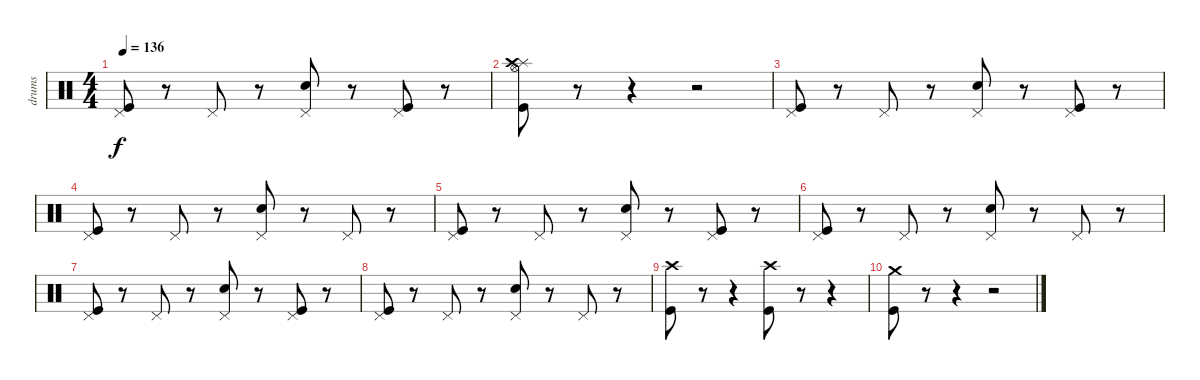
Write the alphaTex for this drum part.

\track ("drums" "drums") {instrument percussion}
\staff {score}
\articulation defaults
\ts (4 4)
\tempo 136
\clef neutral
\ks c
("Kick (hit)" "Pedal Hi-Hat (hit)").8{dy f} r.8 "Pedal Hi-Hat (hit)".8 r.8 ("Snare (hit) 2" "Pedal Hi-Hat (hit)").8 r.8 ("Kick (hit)" "Pedal Hi-Hat (hit)").8 r.8 |
("Kick (hit)" "Splash (hit)" "Hi-Hat (open)" "Crash high (hit)").8 r.8 r.4 r.2 |
("Kick (hit)" "Pedal Hi-Hat (hit)").8 r.8 "Pedal Hi-Hat (hit)".8 r.8 ("Snare (hit) 2" "Pedal Hi-Hat (hit)").8 r.8 ("Kick (hit)" "Pedal Hi-Hat (hit)").8 r.8 |
("Kick (hit)" "Pedal Hi-Hat (hit)").8 r.8 "Pedal Hi-Hat (hit)".8 r.8 ("Snare (hit) 2" "Pedal Hi-Hat (hit)").8 r.8 "Pedal Hi-Hat (hit)".8 r.8 |
("Kick (hit)" "Pedal Hi-Hat (hit)").8 r.8 "Pedal Hi-Hat (hit)".8 r.8 ("Snare (hit) 2" "Pedal Hi-Hat (hit)").8 r.8 ("Kick (hit)" "Pedal Hi-Hat (hit)").8 r.8 |
("Kick (hit)" "Pedal Hi-Hat (hit)").8 r.8 "Pedal Hi-Hat (hit)".8 r.8 ("Snare (hit) 2" "Pedal Hi-Hat (hit)").8 r.8 "Pedal Hi-Hat (hit)".8 r.8 |
("Kick (hit)" "Pedal Hi-Hat (hit)").8 r.8 "Pedal Hi-Hat (hit)".8 r.8 ("Snare (hit) 2" "Pedal Hi-Hat (hit)").8 r.8 ("Kick (hit)" "Pedal Hi-Hat (hit)").8 r.8 |
("Kick (hit)" "Pedal Hi-Hat (hit)").8 r.8 "Pedal Hi-Hat (hit)".8 r.8 ("Snare (hit) 2" "Pedal Hi-Hat (hit)").8 r.8 "Pedal Hi-Hat (hit)".8 r.8 |
("Kick (hit)" "Crash high (hit)").8 r.8 r.4 ("Kick (hit)" "Crash high (hit)").8 r.8 r.4 |
("Kick (hit)" "Crash medium (hit)").8 r.8 r.4 r.2
